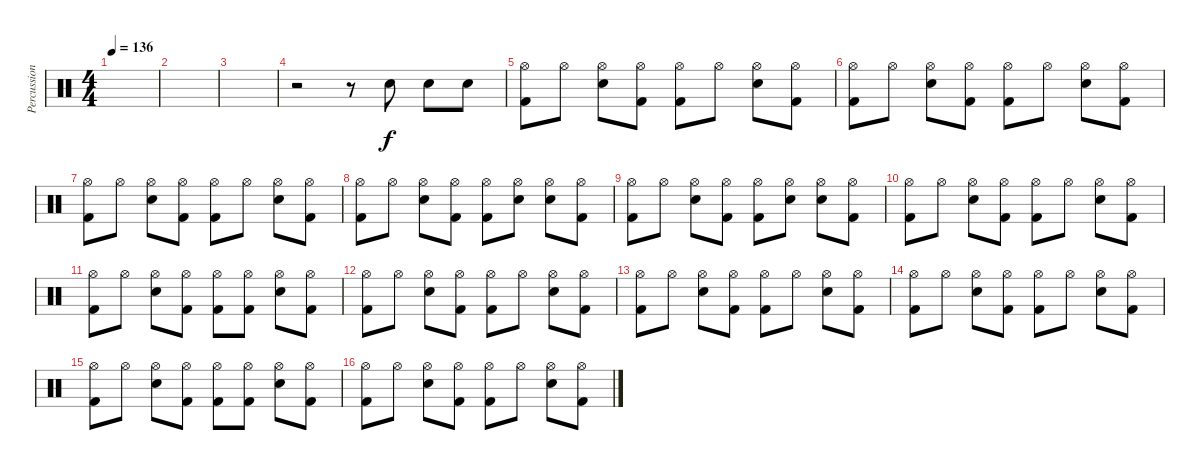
\track ("Percussion" "Percussion") {instrument percussion}
\staff {score}
\articulation defaults
\ts (4 4)
\tempo 136
\clef neutral
\ks c
|
|
|
r.2 r.8 "Electric Snare (hit)".8 "Electric Snare (hit)".8 "Electric Snare (hit)".8 |
("Hi-Hat (open)" "Kick (hit) 2").8 "Hi-Hat (open)".8 ("Hi-Hat (open)" "Electric Snare (hit)").8 ("Hi-Hat (open)" "Kick (hit) 2").8 ("Hi-Hat (open)" "Kick (hit) 2").8 "Hi-Hat (open)".8 ("Hi-Hat (open)" "Electric Snare (hit)").8 ("Hi-Hat (open)" "Kick (hit) 2").8 |
("Hi-Hat (open)" "Kick (hit) 2").8 "Hi-Hat (open)".8 ("Hi-Hat (open)" "Electric Snare (hit)").8 ("Hi-Hat (open)" "Kick (hit) 2").8 ("Hi-Hat (open)" "Kick (hit) 2").8 "Hi-Hat (open)".8 ("Hi-Hat (open)" "Electric Snare (hit)").8 ("Hi-Hat (open)" "Kick (hit) 2").8 |
("Hi-Hat (open)" "Kick (hit) 2").8 "Hi-Hat (open)".8 ("Hi-Hat (open)" "Electric Snare (hit)").8 ("Hi-Hat (open)" "Kick (hit) 2").8 ("Hi-Hat (open)" "Kick (hit) 2").8 "Hi-Hat (open)".8 ("Hi-Hat (open)" "Electric Snare (hit)").8 ("Hi-Hat (open)" "Kick (hit) 2").8 |
("Hi-Hat (open)" "Kick (hit) 2").8 "Hi-Hat (open)".8 ("Hi-Hat (open)" "Electric Snare (hit)").8 ("Hi-Hat (open)" "Kick (hit) 2").8 ("Hi-Hat (open)" "Kick (hit) 2").8 ("Hi-Hat (open)" "Electric Snare (hit)").8 ("Hi-Hat (open)" "Electric Snare (hit)").8 ("Hi-Hat (open)" "Kick (hit) 2").8 |
("Hi-Hat (open)" "Kick (hit) 2").8 "Hi-Hat (open)".8 ("Hi-Hat (open)" "Electric Snare (hit)").8 ("Hi-Hat (open)" "Kick (hit) 2").8 ("Hi-Hat (open)" "Kick (hit) 2").8 ("Hi-Hat (open)" "Electric Snare (hit)").8 ("Hi-Hat (open)" "Electric Snare (hit)").8 ("Hi-Hat (open)" "Kick (hit) 2").8 |
("Hi-Hat (open)" "Kick (hit) 2").8 "Hi-Hat (open)".8 ("Hi-Hat (open)" "Electric Snare (hit)").8 ("Hi-Hat (open)" "Kick (hit) 2").8 ("Hi-Hat (open)" "Kick (hit) 2").8 "Hi-Hat (open)".8 ("Hi-Hat (open)" "Electric Snare (hit)").8 ("Hi-Hat (open)" "Kick (hit) 2").8 |
("Hi-Hat (open)" "Kick (hit) 2").8 "Hi-Hat (open)".8 ("Hi-Hat (open)" "Electric Snare (hit)").8 ("Hi-Hat (open)" "Kick (hit) 2").8 ("Hi-Hat (open)" "Kick (hit) 2").8 ("Hi-Hat (open)" "Kick (hit) 2").8 ("Hi-Hat (open)" "Electric Snare (hit)").8 ("Hi-Hat (open)" "Kick (hit) 2").8 |
("Hi-Hat (open)" "Kick (hit) 2").8 "Hi-Hat (open)".8 ("Hi-Hat (open)" "Electric Snare (hit)").8 ("Hi-Hat (open)" "Kick (hit) 2").8 ("Hi-Hat (open)" "Kick (hit) 2").8 "Hi-Hat (open)".8 ("Hi-Hat (open)" "Electric Snare (hit)").8 ("Hi-Hat (open)" "Kick (hit) 2").8 |
("Hi-Hat (open)" "Kick (hit) 2").8 "Hi-Hat (open)".8 ("Hi-Hat (open)" "Electric Snare (hit)").8 ("Hi-Hat (open)" "Kick (hit) 2").8 ("Hi-Hat (open)" "Kick (hit) 2").8 "Hi-Hat (open)".8 ("Hi-Hat (open)" "Electric Snare (hit)").8 ("Hi-Hat (open)" "Kick (hit) 2").8 |
("Hi-Hat (open)" "Kick (hit) 2").8 "Hi-Hat (open)".8 ("Hi-Hat (open)" "Electric Snare (hit)").8 ("Hi-Hat (open)" "Kick (hit) 2").8 ("Hi-Hat (open)" "Kick (hit) 2").8 "Hi-Hat (open)".8 ("Hi-Hat (open)" "Electric Snare (hit)").8 ("Hi-Hat (open)" "Kick (hit) 2").8 |
("Hi-Hat (open)" "Kick (hit) 2").8 "Hi-Hat (open)".8 ("Hi-Hat (open)" "Electric Snare (hit)").8 ("Hi-Hat (open)" "Kick (hit) 2").8 ("Hi-Hat (open)" "Kick (hit) 2").8 ("Hi-Hat (open)" "Kick (hit) 2").8 ("Hi-Hat (open)" "Electric Snare (hit)").8 ("Hi-Hat (open)" "Kick (hit) 2").8 |
("Hi-Hat (open)" "Kick (hit) 2").8 "Hi-Hat (open)".8 ("Hi-Hat (open)" "Electric Snare (hit)").8 ("Hi-Hat (open)" "Kick (hit) 2").8 ("Hi-Hat (open)" "Kick (hit) 2").8 "Hi-Hat (open)".8 ("Hi-Hat (open)" "Electric Snare (hit)").8 ("Hi-Hat (open)" "Kick (hit) 2").8
